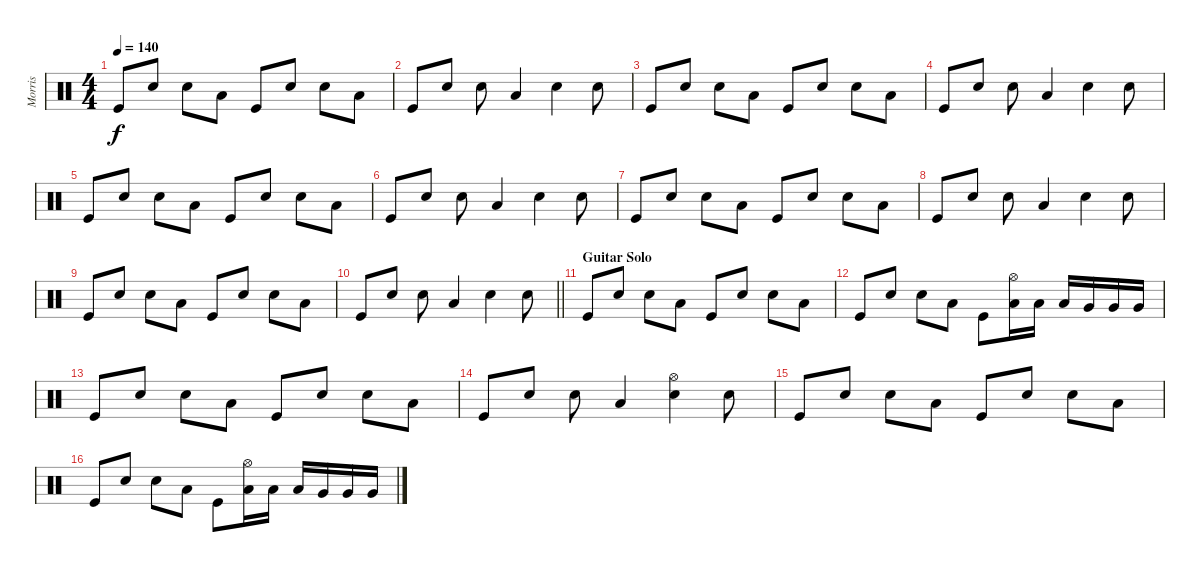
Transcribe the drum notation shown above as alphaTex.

\track ("Morris" "Morris") {instrument percussion}
\staff {score}
\articulation defaults
\ts (4 4)
\tempo 140
\clef neutral
\ks c "Kick (hit)".8{dy f} "Electric Snare (hit)".8 "Electric Snare (hit)".8 "Low Tom (hit)".8 "Kick (hit)".8 "Electric Snare (hit)".8 "Electric Snare (hit)".8 "Low Tom (hit)".8
|
"Kick (hit)".8 "Electric Snare (hit)".8 "Electric Snare (hit)".8 "Low Tom (hit)".4 "Electric Snare (hit)".4 "Electric Snare (hit)".8 |
"Kick (hit)".8 "Electric Snare (hit)".8 "Electric Snare (hit)".8 "Low Tom (hit)".8 "Kick (hit)".8 "Electric Snare (hit)".8 "Electric Snare (hit)".8 "Low Tom (hit)".8 |
"Kick (hit)".8 "Electric Snare (hit)".8 "Electric Snare (hit)".8 "Low Tom (hit)".4 "Electric Snare (hit)".4 "Electric Snare (hit)".8 |
"Kick (hit)".8 "Electric Snare (hit)".8 "Electric Snare (hit)".8 "Low Tom (hit)".8 "Kick (hit)".8 "Electric Snare (hit)".8 "Electric Snare (hit)".8 "Low Tom (hit)".8 |
"Kick (hit)".8 "Electric Snare (hit)".8 "Electric Snare (hit)".8 "Low Tom (hit)".4 "Electric Snare (hit)".4 "Electric Snare (hit)".8 |
"Kick (hit)".8 "Electric Snare (hit)".8 "Electric Snare (hit)".8 "Low Tom (hit)".8 "Kick (hit)".8 "Electric Snare (hit)".8 "Electric Snare (hit)".8 "Low Tom (hit)".8 |
"Kick (hit)".8 "Electric Snare (hit)".8 "Electric Snare (hit)".8 "Low Tom (hit)".4 "Electric Snare (hit)".4 "Electric Snare (hit)".8 |
"Kick (hit)".8 "Electric Snare (hit)".8 "Electric Snare (hit)".8 "Low Tom (hit)".8 "Kick (hit)".8 "Electric Snare (hit)".8 "Electric Snare (hit)".8 "Low Tom (hit)".8 |
\barLineRight lightlight "Kick (hit)".8 "Electric Snare (hit)".8 "Electric Snare (hit)".8 "Low Tom (hit)".4 "Electric Snare (hit)".4 "Electric Snare (hit)".8
|
\section ("" "Guitar Solo")
"Kick (hit)".8 "Electric Snare (hit)".8 "Electric Snare (hit)".8 "Low Tom (hit)".8 "Kick (hit)".8 "Electric Snare (hit)".8 "Electric Snare (hit)".8 "Low Tom (hit)".8 |
"Kick (hit)".8 "Electric Snare (hit)".8 "Electric Snare (hit)".8 "Low Tom (hit)".8 "Kick (hit)".8 ("Hi-Hat (open)" "Low Tom (hit)").16 "Low Tom (hit)".16 "Low Tom (hit)".16 "Very Low Tom (hit)".16 "Very Low Tom (hit)".16 "Very Low Tom (hit)".16 |
"Kick (hit)".8 "Electric Snare (hit)".8 "Electric Snare (hit)".8 "Low Tom (hit)".8 "Kick (hit)".8 "Electric Snare (hit)".8 "Electric Snare (hit)".8 "Low Tom (hit)".8 |
"Kick (hit)".8 "Electric Snare (hit)".8 "Electric Snare (hit)".8 "Low Tom (hit)".4 ("Hi-Hat (open)" "Electric Snare (hit)").4 "Electric Snare (hit)".8 |
"Kick (hit)".8 "Electric Snare (hit)".8 "Electric Snare (hit)".8 "Low Tom (hit)".8 "Kick (hit)".8 "Electric Snare (hit)".8 "Electric Snare (hit)".8 "Low Tom (hit)".8 |
"Kick (hit)".8 "Electric Snare (hit)".8 "Electric Snare (hit)".8 "Low Tom (hit)".8 "Kick (hit)".8 ("Hi-Hat (open)" "Low Tom (hit)").16 "Low Tom (hit)".16 "Low Tom (hit)".16 "Very Low Tom (hit)".16 "Very Low Tom (hit)".16 "Very Low Tom (hit)".16
